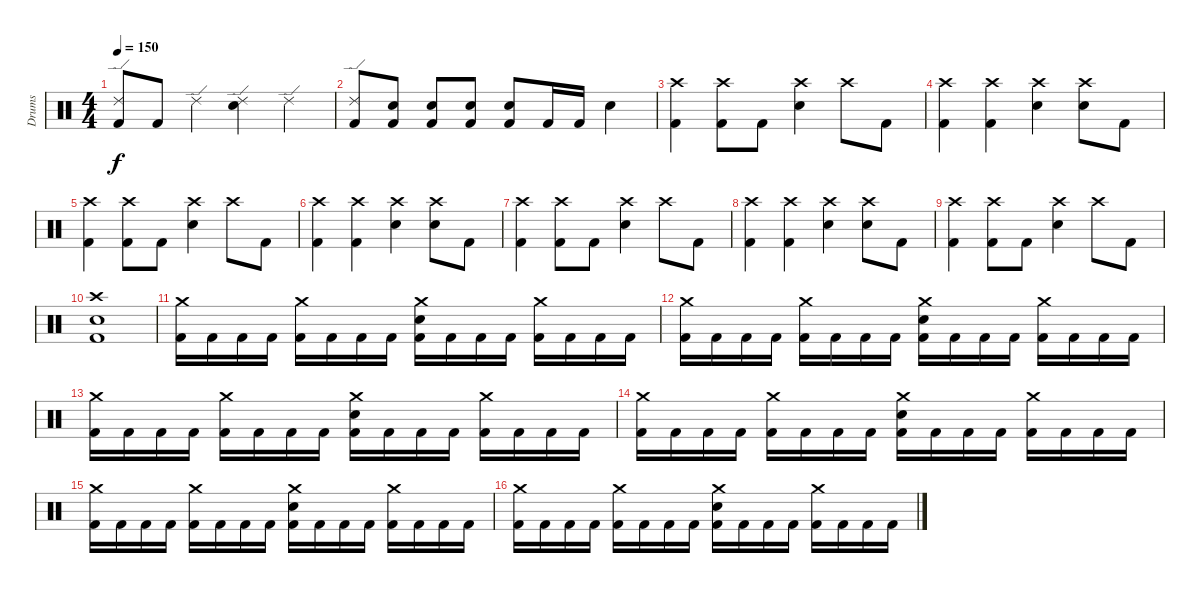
\track ("Drums" "Drums") {instrument percussion}
\staff {score}
\articulation defaults
\ts (4 4)
\tempo 150
\clef neutral
\ks c
("Ride (edge) 2" "Kick (hit) 2").8{dy f} "Kick (hit) 2".8 "Ride (edge) 2".4 ("Ride (edge) 2" "Snare (hit) 2").4 "Ride (edge) 2".4 |
("Ride (edge) 2" "Kick (hit) 2").8 ("Snare (hit) 2" "Kick (hit) 2").8 ("Snare (hit) 2" "Kick (hit) 2").8 ("Snare (hit) 2" "Kick (hit) 2").8 ("Snare (hit) 2" "Kick (hit) 2").8 "Kick (hit) 2".16 "Kick (hit) 2".16 "Snare (hit) 2".4 |
("Crash high (hit)" "Kick (hit) 2").4 ("Crash high (hit)" "Kick (hit) 2").8 "Kick (hit) 2".8 ("Crash high (hit)" "Snare (hit) 2").4 "Crash high (hit)".8 "Kick (hit) 2".8 |
("Crash high (hit)" "Kick (hit) 2").4 ("Crash high (hit)" "Kick (hit) 2").4 ("Crash high (hit)" "Snare (hit) 2").4 ("Crash high (hit)" "Snare (hit) 2").8 "Kick (hit) 2".8 |
("Crash high (hit)" "Kick (hit) 2").4 ("Crash high (hit)" "Kick (hit) 2").8 "Kick (hit) 2".8 ("Crash high (hit)" "Snare (hit) 2").4 "Crash high (hit)".8 "Kick (hit) 2".8 |
("Crash high (hit)" "Kick (hit) 2").4 ("Crash high (hit)" "Kick (hit) 2").4 ("Crash high (hit)" "Snare (hit) 2").4 ("Crash high (hit)" "Snare (hit) 2").8 "Kick (hit) 2".8 |
("Crash high (hit)" "Kick (hit) 2").4 ("Crash high (hit)" "Kick (hit) 2").8 "Kick (hit) 2".8 ("Crash high (hit)" "Snare (hit) 2").4 "Crash high (hit)".8 "Kick (hit) 2".8 |
("Crash high (hit)" "Kick (hit) 2").4 ("Crash high (hit)" "Kick (hit) 2").4 ("Crash high (hit)" "Snare (hit) 2").4 ("Crash high (hit)" "Snare (hit) 2").8 "Kick (hit) 2".8 |
("Crash high (hit)" "Kick (hit) 2").4 ("Crash high (hit)" "Kick (hit) 2").8 "Kick (hit) 2".8 ("Crash high (hit)" "Snare (hit) 2").4 "Crash high (hit)".8 "Kick (hit) 2".8 |
("Crash high (hit)" "Snare (hit) 2" "Kick (hit) 2").1 |
("Crash medium (hit)" "Kick (hit) 2").16 "Kick (hit) 2".16 "Kick (hit) 2".16 "Kick (hit) 2".16 ("Crash medium (hit)" "Kick (hit) 2").16 "Kick (hit) 2".16 "Kick (hit) 2".16 "Kick (hit) 2".16 ("Crash medium (hit)" "Snare (hit) 2" "Kick (hit) 2").16 "Kick (hit) 2".16 "Kick (hit) 2".16 "Kick (hit) 2".16 ("Crash medium (hit)" "Kick (hit) 2").16 "Kick (hit) 2".16 "Kick (hit) 2".16 "Kick (hit) 2".16 |
("Crash medium (hit)" "Kick (hit) 2").16 "Kick (hit) 2".16 "Kick (hit) 2".16 "Kick (hit) 2".16 ("Crash medium (hit)" "Kick (hit) 2").16 "Kick (hit) 2".16 "Kick (hit) 2".16 "Kick (hit) 2".16 ("Crash medium (hit)" "Snare (hit) 2" "Kick (hit) 2").16 "Kick (hit) 2".16 "Kick (hit) 2".16 "Kick (hit) 2".16 ("Crash medium (hit)" "Kick (hit) 2").16 "Kick (hit) 2".16 "Kick (hit) 2".16 "Kick (hit) 2".16 |
("Crash medium (hit)" "Kick (hit) 2").16 "Kick (hit) 2".16 "Kick (hit) 2".16 "Kick (hit) 2".16 ("Crash medium (hit)" "Kick (hit) 2").16 "Kick (hit) 2".16 "Kick (hit) 2".16 "Kick (hit) 2".16 ("Crash medium (hit)" "Snare (hit) 2" "Kick (hit) 2").16 "Kick (hit) 2".16 "Kick (hit) 2".16 "Kick (hit) 2".16 ("Crash medium (hit)" "Kick (hit) 2").16 "Kick (hit) 2".16 "Kick (hit) 2".16 "Kick (hit) 2".16 |
("Crash medium (hit)" "Kick (hit) 2").16 "Kick (hit) 2".16 "Kick (hit) 2".16 "Kick (hit) 2".16 ("Crash medium (hit)" "Kick (hit) 2").16 "Kick (hit) 2".16 "Kick (hit) 2".16 "Kick (hit) 2".16 ("Crash medium (hit)" "Snare (hit) 2" "Kick (hit) 2").16 "Kick (hit) 2".16 "Kick (hit) 2".16 "Kick (hit) 2".16 ("Crash medium (hit)" "Kick (hit) 2").16 "Kick (hit) 2".16 "Kick (hit) 2".16 "Kick (hit) 2".16 |
("Crash medium (hit)" "Kick (hit) 2").16 "Kick (hit) 2".16 "Kick (hit) 2".16 "Kick (hit) 2".16 ("Crash medium (hit)" "Kick (hit) 2").16 "Kick (hit) 2".16 "Kick (hit) 2".16 "Kick (hit) 2".16 ("Crash medium (hit)" "Snare (hit) 2" "Kick (hit) 2").16 "Kick (hit) 2".16 "Kick (hit) 2".16 "Kick (hit) 2".16 ("Crash medium (hit)" "Kick (hit) 2").16 "Kick (hit) 2".16 "Kick (hit) 2".16 "Kick (hit) 2".16 |
("Crash medium (hit)" "Kick (hit) 2").16 "Kick (hit) 2".16 "Kick (hit) 2".16 "Kick (hit) 2".16 ("Crash medium (hit)" "Kick (hit) 2").16 "Kick (hit) 2".16 "Kick (hit) 2".16 "Kick (hit) 2".16 ("Crash medium (hit)" "Snare (hit) 2" "Kick (hit) 2").16 "Kick (hit) 2".16 "Kick (hit) 2".16 "Kick (hit) 2".16 ("Crash medium (hit)" "Kick (hit) 2").16 "Kick (hit) 2".16 "Kick (hit) 2".16 "Kick (hit) 2".16
